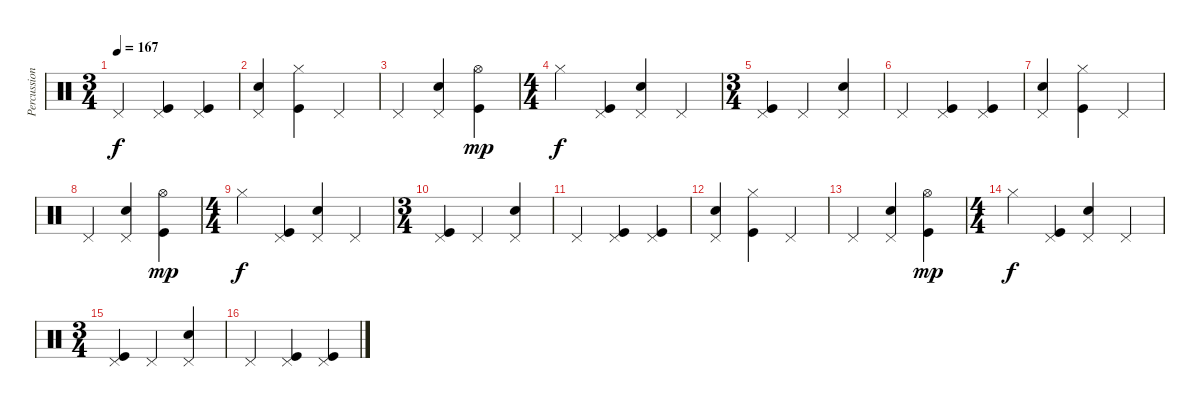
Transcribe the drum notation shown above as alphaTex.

\track ("Percussion" "Percussion") {instrument percussion}
\staff {score}
\articulation defaults
\ts (3 4)
\tempo 167
\clef neutral
\ks c "Pedal Hi-Hat (hit)".4{dy f}
("Pedal Hi-Hat (hit)" "Kick (hit)").4 ("Pedal Hi-Hat (hit)" "Kick (hit)").4 |
("Pedal Hi-Hat (hit)" "Snare (hit) 2").4 ("Hi-Hat (closed)" "Kick (hit)").4 "Pedal Hi-Hat (hit)".4 |
"Pedal Hi-Hat (hit)".4 ("Pedal Hi-Hat (hit)" "Snare (hit) 2").4 ("Hi-Hat (open)" "Kick (hit)").4{dy mp} |
\ts (4 4)
"Hi-Hat (closed)".4{dy f} ("Pedal Hi-Hat (hit)" "Kick (hit)").4 ("Pedal Hi-Hat (hit)" "Snare (hit) 2").4 "Pedal Hi-Hat (hit)".4 |
\ts (3 4)
("Pedal Hi-Hat (hit)" "Kick (hit)").4 "Pedal Hi-Hat (hit)".4 ("Pedal Hi-Hat (hit)" "Snare (hit) 2").4 |
"Pedal Hi-Hat (hit)".4 ("Pedal Hi-Hat (hit)" "Kick (hit)").4 ("Pedal Hi-Hat (hit)" "Kick (hit)").4 |
("Pedal Hi-Hat (hit)" "Snare (hit) 2").4 ("Hi-Hat (closed)" "Kick (hit)").4 "Pedal Hi-Hat (hit)".4 |
"Pedal Hi-Hat (hit)".4 ("Pedal Hi-Hat (hit)" "Snare (hit) 2").4 ("Hi-Hat (open)" "Kick (hit)").4{dy mp} |
\ts (4 4)
"Hi-Hat (closed)".4{dy f} ("Pedal Hi-Hat (hit)" "Kick (hit)").4 ("Pedal Hi-Hat (hit)" "Snare (hit) 2").4 "Pedal Hi-Hat (hit)".4 |
\ts (3 4)
("Pedal Hi-Hat (hit)" "Kick (hit)").4 "Pedal Hi-Hat (hit)".4 ("Pedal Hi-Hat (hit)" "Snare (hit) 2").4 |
"Pedal Hi-Hat (hit)".4 ("Pedal Hi-Hat (hit)" "Kick (hit)").4 ("Pedal Hi-Hat (hit)" "Kick (hit)").4 |
("Pedal Hi-Hat (hit)" "Snare (hit) 2").4 ("Hi-Hat (closed)" "Kick (hit)").4 "Pedal Hi-Hat (hit)".4 |
"Pedal Hi-Hat (hit)".4 ("Pedal Hi-Hat (hit)" "Snare (hit) 2").4 ("Hi-Hat (open)" "Kick (hit)").4{dy mp} |
\ts (4 4)
"Hi-Hat (closed)".4{dy f} ("Pedal Hi-Hat (hit)" "Kick (hit)").4 ("Pedal Hi-Hat (hit)" "Snare (hit) 2").4 "Pedal Hi-Hat (hit)".4 |
\ts (3 4)
("Pedal Hi-Hat (hit)" "Kick (hit)").4 "Pedal Hi-Hat (hit)".4 ("Pedal Hi-Hat (hit)" "Snare (hit) 2").4 |
"Pedal Hi-Hat (hit)".4 ("Pedal Hi-Hat (hit)" "Kick (hit)").4 ("Pedal Hi-Hat (hit)" "Kick (hit)").4
